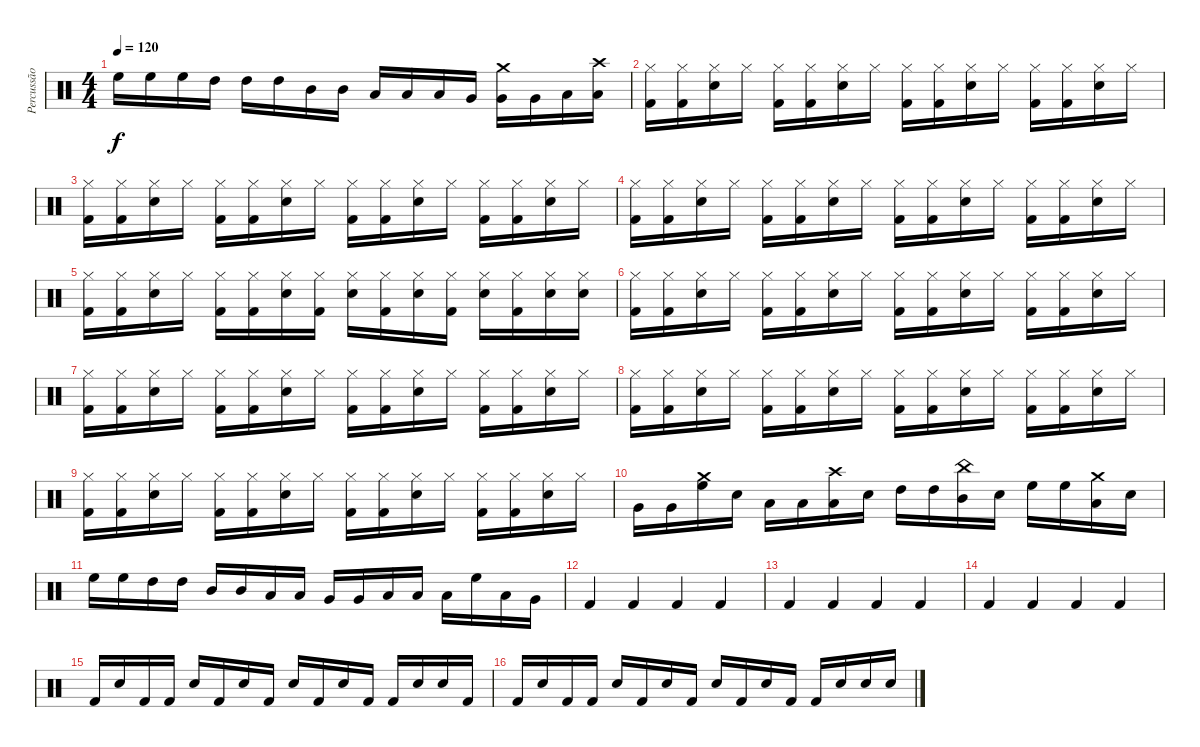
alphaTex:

\track ("Percussão" "Percussão") {instrument percussion}
\staff {score}
\articulation defaults
\ts (4 4)
\tempo 120
\clef neutral
\ks c "High Floor Tom (hit)".16{dy f} "High Floor Tom (hit)".16 "High Floor Tom (hit)".16 "High Tom (hit)".16 "High Tom (hit)".16 "High Tom (hit)".16 "Mid Tom (hit)".16 "Mid Tom (hit)".16 "Low Tom (hit)".16 "Low Tom (hit)".16 "Low Tom (hit)".16 "Very Low Tom (hit)".16
("Crash medium (hit)" "Very Low Tom (hit)").16 "Very Low Tom (hit)".16 "Low Floor Tom (hit)".16 ("Crash high (hit)" "Low Floor Tom (hit)").16 |
("Hi-Hat (closed)" "Kick (hit) 2").16 ("Hi-Hat (closed)" "Kick (hit) 2").16 ("Hi-Hat (closed)" "Electric Snare (hit)").16 "Hi-Hat (closed)".16 ("Hi-Hat (closed)" "Kick (hit) 2").16 ("Hi-Hat (closed)" "Kick (hit) 2").16 ("Hi-Hat (closed)" "Electric Snare (hit)").16 "Hi-Hat (closed)".16 ("Hi-Hat (closed)" "Kick (hit) 2").16 ("Hi-Hat (closed)" "Kick (hit) 2").16 ("Hi-Hat (closed)" "Electric Snare (hit)").16 "Hi-Hat (closed)".16 ("Hi-Hat (closed)" "Kick (hit) 2").16 ("Hi-Hat (closed)" "Kick (hit) 2").16 ("Hi-Hat (closed)" "Electric Snare (hit)").16 "Hi-Hat (closed)".16 |
("Hi-Hat (closed)" "Kick (hit) 2").16 ("Hi-Hat (closed)" "Kick (hit) 2").16 ("Hi-Hat (closed)" "Electric Snare (hit)").16 "Hi-Hat (closed)".16 ("Hi-Hat (closed)" "Kick (hit) 2").16 ("Hi-Hat (closed)" "Kick (hit) 2").16 ("Hi-Hat (closed)" "Electric Snare (hit)").16 "Hi-Hat (closed)".16 ("Hi-Hat (closed)" "Kick (hit) 2").16 ("Hi-Hat (closed)" "Kick (hit) 2").16 ("Hi-Hat (closed)" "Electric Snare (hit)").16 "Hi-Hat (closed)".16 ("Hi-Hat (closed)" "Kick (hit) 2").16 ("Hi-Hat (closed)" "Kick (hit) 2").16 ("Hi-Hat (closed)" "Electric Snare (hit)").16 "Hi-Hat (closed)".16 |
("Hi-Hat (closed)" "Kick (hit) 2").16 ("Hi-Hat (closed)" "Kick (hit) 2").16 ("Hi-Hat (closed)" "Electric Snare (hit)").16 "Hi-Hat (closed)".16 ("Hi-Hat (closed)" "Kick (hit) 2").16 ("Hi-Hat (closed)" "Kick (hit) 2").16 ("Hi-Hat (closed)" "Electric Snare (hit)").16 "Hi-Hat (closed)".16 ("Hi-Hat (closed)" "Kick (hit) 2").16 ("Hi-Hat (closed)" "Kick (hit) 2").16 ("Hi-Hat (closed)" "Electric Snare (hit)").16 "Hi-Hat (closed)".16 ("Hi-Hat (closed)" "Kick (hit) 2").16 ("Hi-Hat (closed)" "Kick (hit) 2").16 ("Hi-Hat (closed)" "Electric Snare (hit)").16 "Hi-Hat (closed)".16 |
("Hi-Hat (closed)" "Kick (hit) 2").16 ("Hi-Hat (closed)" "Kick (hit) 2").16 ("Hi-Hat (closed)" "Electric Snare (hit)").16 "Hi-Hat (closed)".16 ("Hi-Hat (closed)" "Kick (hit) 2").16 ("Hi-Hat (closed)" "Kick (hit) 2").16 ("Hi-Hat (closed)" "Electric Snare (hit)").16 ("Hi-Hat (closed)" "Kick (hit) 2").16 ("Hi-Hat (closed)" "Electric Snare (hit)").16 ("Hi-Hat (closed)" "Kick (hit) 2").16 ("Hi-Hat (closed)" "Electric Snare (hit)").16 ("Hi-Hat (closed)" "Kick (hit) 2").16 ("Hi-Hat (closed)" "Electric Snare (hit)").16 ("Hi-Hat (closed)" "Kick (hit) 2").16 ("Hi-Hat (closed)" "Electric Snare (hit)").16 ("Hi-Hat (closed)" "Electric Snare (hit)").16 |
("Hi-Hat (closed)" "Kick (hit) 2").16 ("Hi-Hat (closed)" "Kick (hit) 2").16 ("Hi-Hat (closed)" "Electric Snare (hit)").16 "Hi-Hat (closed)".16 ("Hi-Hat (closed)" "Kick (hit) 2").16 ("Hi-Hat (closed)" "Kick (hit) 2").16 ("Hi-Hat (closed)" "Electric Snare (hit)").16 "Hi-Hat (closed)".16 ("Hi-Hat (closed)" "Kick (hit) 2").16 ("Hi-Hat (closed)" "Kick (hit) 2").16 ("Hi-Hat (closed)" "Electric Snare (hit)").16 "Hi-Hat (closed)".16 ("Hi-Hat (closed)" "Kick (hit) 2").16 ("Hi-Hat (closed)" "Kick (hit) 2").16 ("Hi-Hat (closed)" "Electric Snare (hit)").16 "Hi-Hat (closed)".16 |
("Hi-Hat (closed)" "Kick (hit) 2").16 ("Hi-Hat (closed)" "Kick (hit) 2").16 ("Hi-Hat (closed)" "Electric Snare (hit)").16 "Hi-Hat (closed)".16 ("Hi-Hat (closed)" "Kick (hit) 2").16 ("Hi-Hat (closed)" "Kick (hit) 2").16 ("Hi-Hat (closed)" "Electric Snare (hit)").16 "Hi-Hat (closed)".16 ("Hi-Hat (closed)" "Kick (hit) 2").16 ("Hi-Hat (closed)" "Kick (hit) 2").16 ("Hi-Hat (closed)" "Electric Snare (hit)").16 "Hi-Hat (closed)".16 ("Hi-Hat (closed)" "Kick (hit) 2").16 ("Hi-Hat (closed)" "Kick (hit) 2").16 ("Hi-Hat (closed)" "Electric Snare (hit)").16 "Hi-Hat (closed)".16 |
("Hi-Hat (closed)" "Kick (hit) 2").16 ("Hi-Hat (closed)" "Kick (hit) 2").16 ("Hi-Hat (closed)" "Electric Snare (hit)").16 "Hi-Hat (closed)".16 ("Hi-Hat (closed)" "Kick (hit) 2").16 ("Hi-Hat (closed)" "Kick (hit) 2").16 ("Hi-Hat (closed)" "Electric Snare (hit)").16 "Hi-Hat (closed)".16 ("Hi-Hat (closed)" "Kick (hit) 2").16 ("Hi-Hat (closed)" "Kick (hit) 2").16 ("Hi-Hat (closed)" "Electric Snare (hit)").16 "Hi-Hat (closed)".16 ("Hi-Hat (closed)" "Kick (hit) 2").16 ("Hi-Hat (closed)" "Kick (hit) 2").16 ("Hi-Hat (closed)" "Electric Snare (hit)").16 "Hi-Hat (closed)".16 |
("Hi-Hat (closed)" "Kick (hit) 2").16 ("Hi-Hat (closed)" "Kick (hit) 2").16 ("Hi-Hat (closed)" "Electric Snare (hit)").16 "Hi-Hat (closed)".16 ("Hi-Hat (closed)" "Kick (hit) 2").16 ("Hi-Hat (closed)" "Kick (hit) 2").16 ("Hi-Hat (closed)" "Electric Snare (hit)").16 "Hi-Hat (closed)".16 ("Hi-Hat (closed)" "Kick (hit) 2").16 ("Hi-Hat (closed)" "Kick (hit) 2").16 ("Hi-Hat (closed)" "Electric Snare (hit)").16 "Hi-Hat (closed)".16 ("Hi-Hat (closed)" "Kick (hit) 2").16 ("Hi-Hat (closed)" "Kick (hit) 2").16 ("Hi-Hat (closed)" "Electric Snare (hit)").16 "Hi-Hat (closed)".16 |
"Very Low Tom (hit)".16 "Very Low Tom (hit)".16 ("Crash medium (hit)" "High Floor Tom (hit)").16 "Electric Snare (hit)".16 "Low Floor Tom (hit)".16 "Low Floor Tom (hit)".16 ("Crash high (hit)" "Low Tom (hit)").16 "Electric Snare (hit)".16 "High Tom (hit)".16 "High Tom (hit)".16 ("China (hit)" "Mid Tom (hit)").16 "Electric Snare (hit)".16 "High Floor Tom (hit)".16 "High Floor Tom (hit)".16 ("Crash medium (hit)" "Low Floor Tom (hit)").16 "Electric Snare (hit)".16 |
"High Floor Tom (hit)".16 "High Floor Tom (hit)".16 "High Tom (hit)".16 "High Tom (hit)".16 "Mid Tom (hit)".16 "Mid Tom (hit)".16 "Low Tom (hit)".16 "Low Tom (hit)".16 "Very Low Tom (hit)".16 "Very Low Tom (hit)".16 "Low Floor Tom (hit)".16 "Low Floor Tom (hit)".16 "Low Tom (hit)".16 "High Floor Tom (hit)".16 "Low Floor Tom (hit)".16 "Very Low Tom (hit)".16 |
"Kick (hit) 2".4 "Kick (hit) 2".4 "Kick (hit) 2".4 "Kick (hit) 2".4 |
"Kick (hit) 2".4 "Kick (hit) 2".4 "Kick (hit) 2".4 "Kick (hit) 2".4 |
"Kick (hit) 2".4 "Kick (hit) 2".4 "Kick (hit) 2".4 "Kick (hit) 2".4 |
"Kick (hit) 2".16 "Electric Snare (hit)".16 "Kick (hit) 2".16 "Kick (hit) 2".16 "Electric Snare (hit)".16 "Kick (hit) 2".16 "Electric Snare (hit)".16 "Kick (hit) 2".16 "Electric Snare (hit)".16 "Kick (hit) 2".16 "Electric Snare (hit)".16 "Kick (hit) 2".16 "Kick (hit) 2".16 "Electric Snare (hit)".16 "Electric Snare (hit)".16 "Kick (hit) 2".16 |
"Kick (hit) 2".16 "Electric Snare (hit)".16 "Kick (hit) 2".16 "Kick (hit) 2".16 "Electric Snare (hit)".16 "Kick (hit) 2".16 "Electric Snare (hit)".16 "Kick (hit) 2".16 "Electric Snare (hit)".16 "Kick (hit) 2".16 "Electric Snare (hit)".16 "Kick (hit) 2".16 "Kick (hit) 2".16 "Electric Snare (hit)".16 "Electric Snare (hit)".16 "Electric Snare (hit)".16
